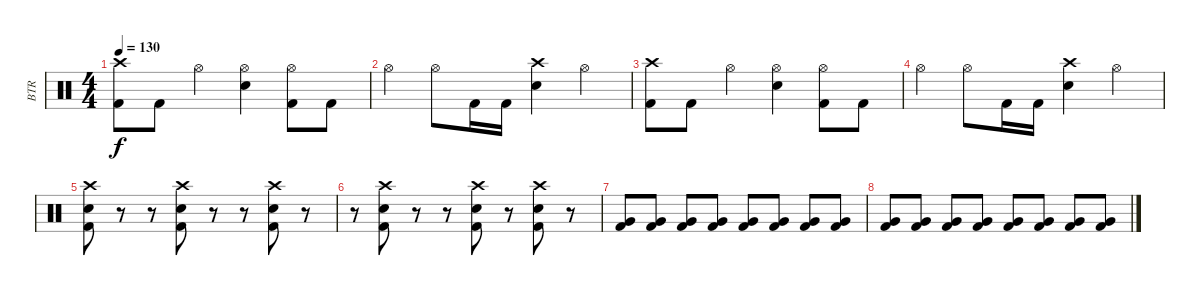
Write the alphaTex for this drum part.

\track ("BTR" "BTR") {instrument percussion}
\staff {score}
\articulation defaults
\ts (4 4)
\tempo 130
\clef neutral
\ks c
("Crash high (hit)" "Kick (hit) 2").8{dy f} "Kick (hit) 2".8 "Hi-Hat (open)".4 ("Hi-Hat (open)" "Snare (hit) 2").4 ("Hi-Hat (open)" "Kick (hit) 2").8 "Kick (hit) 2".8 |
"Hi-Hat (open)".4 "Hi-Hat (open)".8 "Kick (hit) 2".16 "Kick (hit) 2".16 ("Crash high (hit)" "Snare (hit) 2").4 "Hi-Hat (open)".4 |
("Crash high (hit)" "Kick (hit) 2").8 "Kick (hit) 2".8 "Hi-Hat (open)".4 ("Hi-Hat (open)" "Snare (hit) 2").4 ("Hi-Hat (open)" "Kick (hit) 2").8 "Kick (hit) 2".8 |
"Hi-Hat (open)".4 "Hi-Hat (open)".8 "Kick (hit) 2".16 "Kick (hit) 2".16 ("Crash high (hit)" "Snare (hit) 2").4 "Hi-Hat (open)".4 |
("Crash high (hit)" "Snare (hit) 2" "Kick (hit) 2").8 r.8 r.8 ("Crash high (hit)" "Snare (hit) 2" "Kick (hit) 2").8 r.8 r.8 ("Crash high (hit)" "Snare (hit) 2" "Kick (hit) 2").8 r.8 |
r.8 ("Crash high (hit)" "Snare (hit) 2" "Kick (hit) 2").8 r.8 r.8 ("Crash high (hit)" "Snare (hit) 2" "Kick (hit) 2").8 r.8 ("Crash high (hit)" "Snare (hit) 2" "Kick (hit) 2").8 r.8 |
("Very Low Tom (hit)" "Kick (hit) 2").8 ("Very Low Tom (hit)" "Kick (hit) 2").8 ("Very Low Tom (hit)" "Kick (hit) 2").8 ("Very Low Tom (hit)" "Kick (hit) 2").8 ("Very Low Tom (hit)" "Kick (hit) 2").8 ("Very Low Tom (hit)" "Kick (hit) 2").8 ("Very Low Tom (hit)" "Kick (hit) 2").8 ("Very Low Tom (hit)" "Kick (hit) 2").8 |
("Very Low Tom (hit)" "Kick (hit) 2").8 ("Very Low Tom (hit)" "Kick (hit) 2").8 ("Very Low Tom (hit)" "Kick (hit) 2").8 ("Very Low Tom (hit)" "Kick (hit) 2").8 ("Very Low Tom (hit)" "Kick (hit) 2").8 ("Very Low Tom (hit)" "Kick (hit) 2").8 ("Very Low Tom (hit)" "Kick (hit) 2").8 ("Very Low Tom (hit)" "Kick (hit) 2").8
